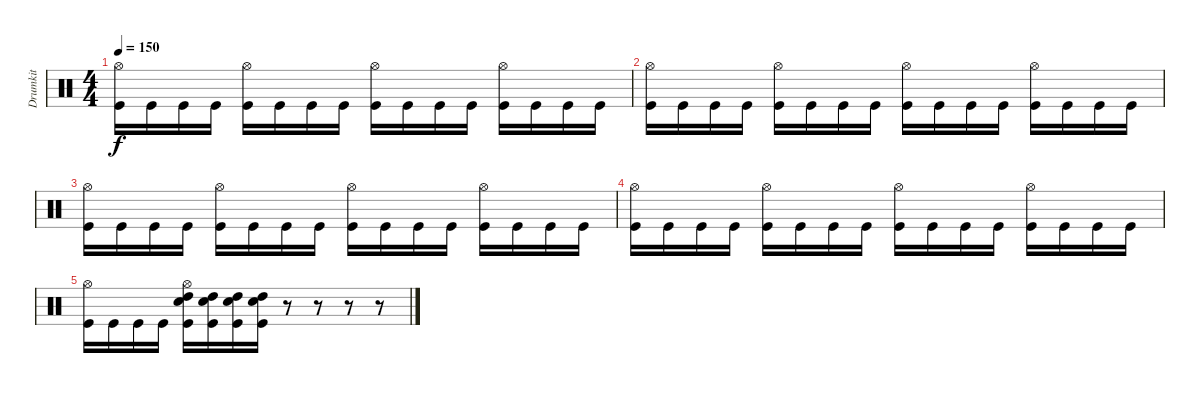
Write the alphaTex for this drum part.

\track ("Drumkit" "Drumkit") {instrument percussion}
\staff {score}
\articulation defaults
\ts (4 4)
\tempo 150
\clef neutral
\ks c
("Hi-Hat (open)" "Kick (hit)").16{dy f} "Kick (hit)".16 "Kick (hit)".16 "Kick (hit)".16 ("Hi-Hat (open)" "Kick (hit)").16 "Kick (hit)".16 "Kick (hit)".16 "Kick (hit)".16 ("Hi-Hat (open)" "Kick (hit)").16 "Kick (hit)".16 "Kick (hit)".16 "Kick (hit)".16 ("Hi-Hat (open)" "Kick (hit)").16 "Kick (hit)".16 "Kick (hit)".16 "Kick (hit)".16 |
("Hi-Hat (open)" "Kick (hit)").16 "Kick (hit)".16 "Kick (hit)".16 "Kick (hit)".16 ("Hi-Hat (open)" "Kick (hit)").16 "Kick (hit)".16 "Kick (hit)".16 "Kick (hit)".16 ("Hi-Hat (open)" "Kick (hit)").16 "Kick (hit)".16 "Kick (hit)".16 "Kick (hit)".16 ("Hi-Hat (open)" "Kick (hit)").16 "Kick (hit)".16 "Kick (hit)".16 "Kick (hit)".16 |
("Hi-Hat (open)" "Kick (hit)").16 "Kick (hit)".16 "Kick (hit)".16 "Kick (hit)".16 ("Hi-Hat (open)" "Kick (hit)").16 "Kick (hit)".16 "Kick (hit)".16 "Kick (hit)".16 ("Hi-Hat (open)" "Kick (hit)").16 "Kick (hit)".16 "Kick (hit)".16 "Kick (hit)".16 ("Hi-Hat (open)" "Kick (hit)").16 "Kick (hit)".16 "Kick (hit)".16 "Kick (hit)".16 |
("Hi-Hat (open)" "Kick (hit)").16 "Kick (hit)".16 "Kick (hit)".16 "Kick (hit)".16 ("Hi-Hat (open)" "Kick (hit)").16 "Kick (hit)".16 "Kick (hit)".16 "Kick (hit)".16 ("Hi-Hat (open)" "Kick (hit)").16 "Kick (hit)".16 "Kick (hit)".16 "Kick (hit)".16 ("Hi-Hat (open)" "Kick (hit)").16 "Kick (hit)".16 "Kick (hit)".16 "Kick (hit)".16 |
("Hi-Hat (open)" "Kick (hit)").16 "Kick (hit)".16 "Kick (hit)".16 "Kick (hit)".16 ("Hi-Hat (open)" "High Tom (hit)" "Snare (hit) 2" "Kick (hit)").16 ("High Tom (hit)" "Snare (hit) 2" "Kick (hit)").16 ("High Tom (hit)" "Snare (hit) 2" "Kick (hit)").16 ("High Tom (hit)" "Snare (hit) 2" "Kick (hit)").16 r.8 r.8 r.8 r.8
